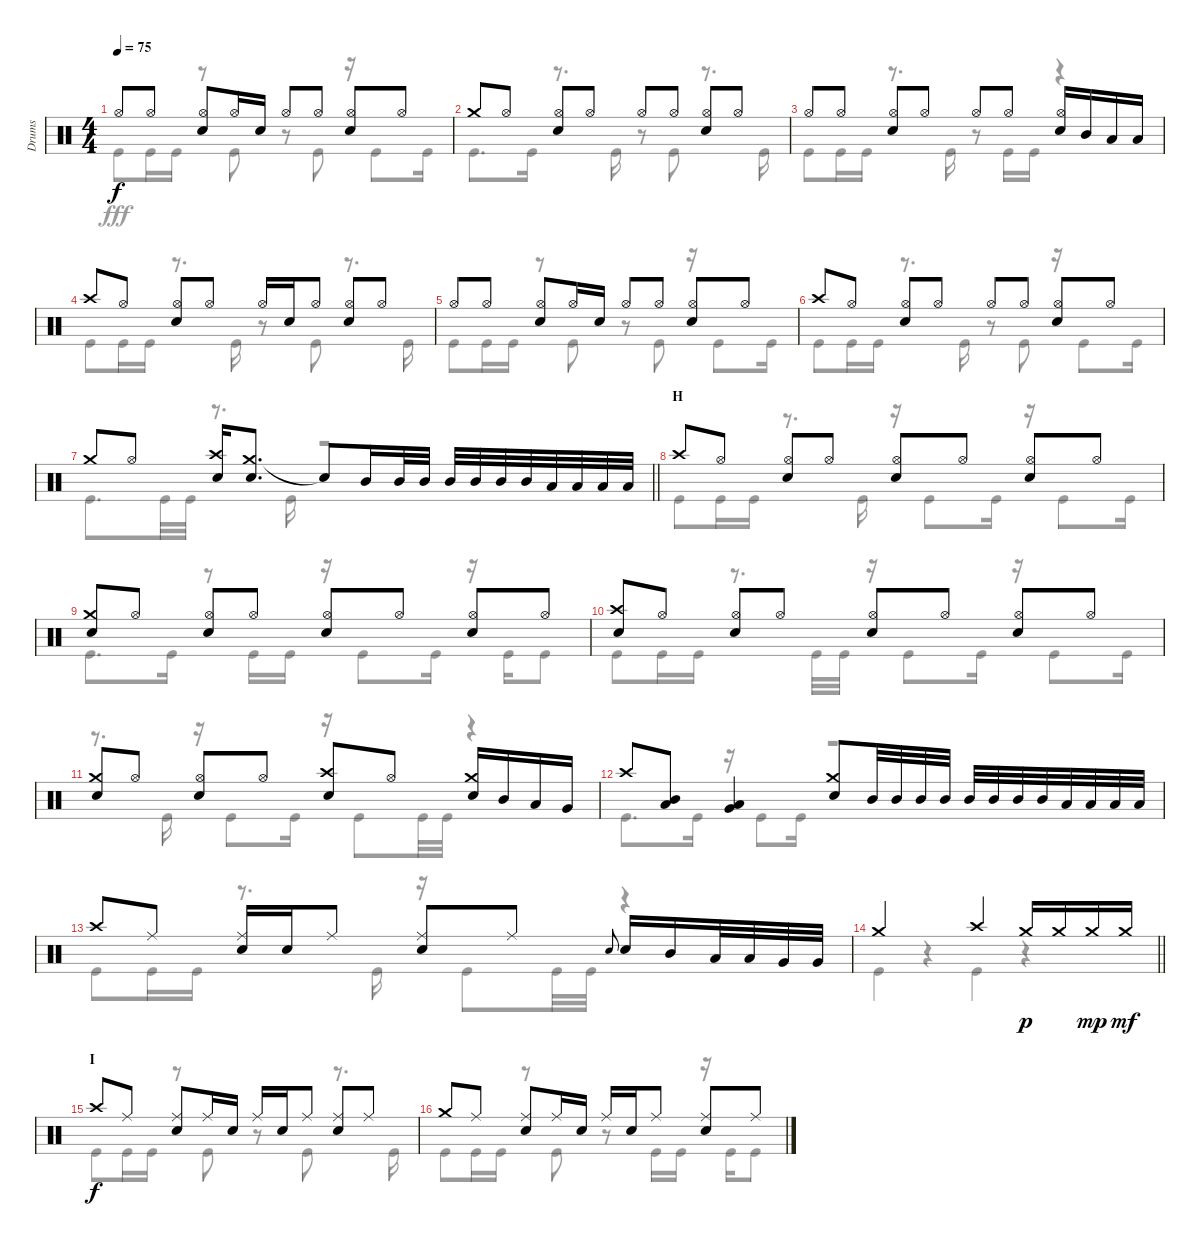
\track ("Drums" "Drums") {instrument percussion}
\staff {score}
\articulation defaults
\voice
\ts (4 4)
\tempo 75
\clef neutral
\ks c "Hi-Hat (open)".8{dy f} "Hi-Hat (open)".8
("Hi-Hat (open)" "Snare (hit) 2").8 "Hi-Hat (open)".16 "Snare (hit) 2".16 "Hi-Hat (open)".8 "Hi-Hat (open)".8 ("Hi-Hat (open)" "Snare (hit) 2").8 "Hi-Hat (open)".8 |
"Crash medium (hit)".8 "Hi-Hat (open)".8 ("Hi-Hat (open)" "Snare (hit) 2").8 "Hi-Hat (open)".8 "Hi-Hat (open)".8 "Hi-Hat (open)".8 ("Hi-Hat (open)" "Snare (hit) 2").8 "Hi-Hat (open)".8 |
"Hi-Hat (open)".8 "Hi-Hat (open)".8 ("Hi-Hat (open)" "Snare (hit) 2").8 "Hi-Hat (open)".8 "Hi-Hat (open)".8 "Hi-Hat (open)".8 ("Hi-Hat (open)" "Snare (hit) 2").16 "Mid Tom (hit)".16 "Low Tom (hit)".16 "Low Tom (hit)".16 |
"Crash high (hit)".8 "Hi-Hat (open)".8 ("Hi-Hat (open)" "Snare (hit) 2").8 "Hi-Hat (open)".8 "Hi-Hat (open)".16 "Snare (hit) 2".16 "Hi-Hat (open)".8 ("Hi-Hat (open)" "Snare (hit) 2").8 "Hi-Hat (open)".8 |
"Hi-Hat (open)".8 "Hi-Hat (open)".8 ("Hi-Hat (open)" "Snare (hit) 2").8 "Hi-Hat (open)".16 "Snare (hit) 2".16 "Hi-Hat (open)".8 "Hi-Hat (open)".8 ("Hi-Hat (open)" "Snare (hit) 2").8 "Hi-Hat (open)".8 |
"Crash high (hit)".8 "Hi-Hat (open)".8 ("Hi-Hat (open)" "Snare (hit) 2").8 "Hi-Hat (open)".8 "Hi-Hat (open)".8 "Hi-Hat (open)".8 ("Hi-Hat (open)" "Snare (hit) 2").8 "Hi-Hat (open)".8 |
\barLineRight lightlight "Crash medium (hit)".8 "Hi-Hat (open)".8
("Crash high (hit)" "Snare (hit) 2").16 ("Crash medium (hit)" "Snare (hit) 2").8{d} "Snare (hit)"{t}.8 "Mid Tom (hit)".16 "Mid Tom (hit)".32 "Mid Tom (hit)".32 "Mid Tom (hit)".32 "Mid Tom (hit)".32 "Mid Tom (hit)".32 "Mid Tom (hit)".32 "Low Tom (hit)".32 "Low Tom (hit)".32 "Low Tom (hit)".32 "Low Tom (hit)".32 |
\section ("" "H")
"Crash high (hit)".8 "Hi-Hat (open)".8 ("Hi-Hat (open)" "Snare (hit) 2").8 "Hi-Hat (open)".8 ("Hi-Hat (open)" "Snare (hit) 2").8 "Hi-Hat (open)".8 ("Hi-Hat (open)" "Snare (hit) 2").8 "Hi-Hat (open)".8 |
("Crash medium (hit)" "Snare (hit) 2").8 "Hi-Hat (open)".8 ("Hi-Hat (open)" "Snare (hit) 2").8 "Hi-Hat (open)".8 ("Hi-Hat (open)" "Snare (hit) 2").8 "Hi-Hat (open)".8 ("Hi-Hat (open)" "Snare (hit) 2").8 "Hi-Hat (open)".8 |
("Crash high (hit)" "Snare (hit) 2").8 "Hi-Hat (open)".8 ("Hi-Hat (open)" "Snare (hit) 2").8 "Hi-Hat (open)".8 ("Hi-Hat (open)" "Snare (hit) 2").8 "Hi-Hat (open)".8 ("Hi-Hat (open)" "Snare (hit) 2").8 "Hi-Hat (open)".8 |
("Crash medium (hit)" "Snare (hit) 2").8 "Hi-Hat (open)".8 ("Hi-Hat (open)" "Snare (hit) 2").8 "Hi-Hat (open)".8 ("Crash high (hit)" "Snare (hit) 2").8 "Hi-Hat (open)".8 ("Crash medium (hit)" "Snare (hit) 2").16 "Mid Tom (hit)".16 "Low Tom (hit)".16 "Very Low Tom (hit)".16 |
"Crash high (hit)".8 ("Mid Tom (hit)" "Low Tom (hit)").8 ("Low Tom (hit)" "Very Low Tom (hit)").4 ("Crash medium (hit)" "Snare (hit) 2").8 "Mid Tom (hit)".32 "Mid Tom (hit)".32 "Mid Tom (hit)".32 "Mid Tom (hit)".32 "Mid Tom (hit)".32 "Mid Tom (hit)".32 "Mid Tom (hit)".32 "Mid Tom (hit)".32 "Low Tom (hit)".32 "Low Tom (hit)".32 "Low Tom (hit)".32 "Low Tom (hit)".32 |
"Crash high (hit)".8 "Ride (middle)".8 ("Ride (middle)" "Snare (hit) 2").16 "Snare (hit) 2".16 "Ride (middle)".8 ("Ride (middle)" "Snare (hit) 2").8 "Ride (middle)".8 "Snare (hit) 2".8{gr onbeat} "Snare (hit) 2".16 "Mid Tom (hit)".16 "Low Tom (hit)".32 "Low Tom (hit)".32 "Very Low Tom (hit)".32 "Very Low Tom (hit)".32 |
\barLineRight lightlight "Crash medium (hit)".2 "Crash high (hit)".4 "Crash medium (hit)".16{dy p} "Crash medium (hit)".16 "Crash medium (hit)".16{dy mp} "Crash medium (hit)".16{dy mf}
|
\section ("" "I")
"Crash high (hit)".8{dy f} "Ride (middle)".8 ("Ride (middle)" "Snare (hit) 2").8 "Ride (middle)".16 "Snare (hit) 2".16 "Ride (middle)".16 "Snare (hit) 2".16 "Ride (middle)".8 ("Ride (middle)" "Snare (hit) 2").8 "Ride (middle)".8 |
"Crash medium (hit)".8 "Ride (middle)".8 ("Ride (middle)" "Snare (hit) 2").8 "Ride (middle)".16 "Snare (hit) 2".16 "Ride (middle)".16 "Snare (hit) 2".16 "Ride (middle)".8 ("Ride (middle)" "Snare (hit) 2").8 "Ride (middle)".8
\voice
\clef neutral
\ottava regular
\simile none
\ks c "Kick (hit)".8{dy fff} "Kick (hit)".16 "Kick (hit)".16
r.8 "Kick (hit)".8 r.8 "Kick (hit)".8 r.16 "Kick (hit)".8 "Kick (hit)".16 |
"Kick (hit)".8{d} "Kick (hit)".16 r.8{d} "Kick (hit)".16 r.8 "Kick (hit)".8 r.8{d} "Kick (hit)".16 |
"Kick (hit)".8 "Kick (hit)".16 "Kick (hit)".16 r.8{d} "Kick (hit)".16 r.8 "Kick (hit)".16 "Kick (hit)".16 r.4 |
"Kick (hit)".8 "Kick (hit)".16 "Kick (hit)".16 r.8{d} "Kick (hit)".16 r.8 "Kick (hit)".8 r.8{d} "Kick (hit)".16 |
"Kick (hit)".8 "Kick (hit)".16 "Kick (hit)".16 r.8 "Kick (hit)".8 r.8 "Kick (hit)".8 r.16 "Kick (hit)".8 "Kick (hit)".16 |
"Kick (hit)".8 "Kick (hit)".16 "Kick (hit)".16 r.8{d} "Kick (hit)".16 r.8 "Kick (hit)".8 r.16 "Kick (hit)".8 "Kick (hit)".16 |
\barLineRight lightlight "Kick (hit)".8{d} "Kick (hit)".32 "Kick (hit)".32
r.8{d} "Kick (hit)".16 r.2 |
"Kick (hit)".8 "Kick (hit)".16 "Kick (hit)".16 r.8{d} "Kick (hit)".16 r.16 "Kick (hit)".8 "Kick (hit)".16 r.16 "Kick (hit)".8 "Kick (hit)".16 |
"Kick (hit)".8{d} "Kick (hit)".16 r.8 "Kick (hit)".16 "Kick (hit)".16 r.16 "Kick (hit)".8 "Kick (hit)".16 r.16 "Kick (hit)".16 "Kick (hit)".8 |
"Kick (hit)".8 "Kick (hit)".16 "Kick (hit)".16 r.8{d} "Kick (hit)".32 "Kick (hit)".32 r.16 "Kick (hit)".8 "Kick (hit)".16 r.16 "Kick (hit)".8 "Kick (hit)".16 |
r.8{d} "Kick (hit)".16 r.16 "Kick (hit)".8 "Kick (hit)".16 r.16 "Kick (hit)".8 "Kick (hit)".32 "Kick (hit)".32 r.4 |
"Kick (hit)".8{d} "Kick (hit)".16 r.16 "Kick (hit)".8 "Kick (hit)".16 r.2 |
"Kick (hit)".8 "Kick (hit)".16 "Kick (hit)".16 r.8{d} "Kick (hit)".16 r.16 "Kick (hit)".8 "Kick (hit)".32 "Kick (hit)".32 r.4 |
\barLineRight lightlight "Kick (hit)".4
r.4 "Kick (hit)".4 r.4 |
"Kick (hit)".8 "Kick (hit)".16 "Kick (hit)".16 r.8 "Kick (hit)".8 r.8 "Kick (hit)".8 r.8{d} "Kick (hit)".16 |
"Kick (hit)".8 "Kick (hit)".16 "Kick (hit)".16 r.8 "Kick (hit)".8 r.8 "Kick (hit)".16 "Kick (hit)".16 r.16 "Kick (hit)".16 "Kick (hit)".8
